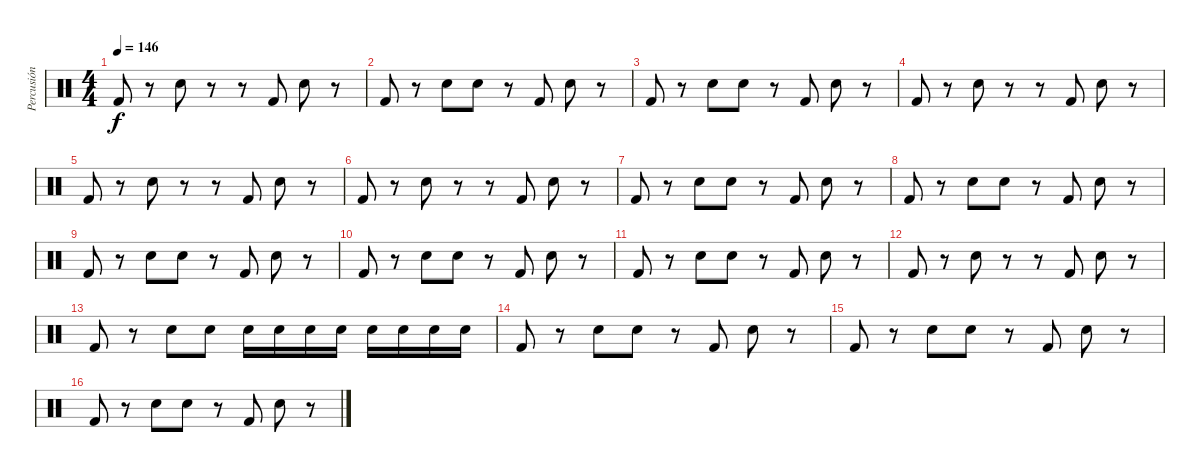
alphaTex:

\track ("Percusión" "Percusión") {instrument percussion}
\staff {score}
\articulation defaults
\ts (4 4)
\tempo 146
\clef neutral
\ks c "Kick (hit) 2".8{dy f}
r.8 "Snare (hit) 2".8 r.8 r.8 "Kick (hit) 2".8 "Snare (hit) 2".8 r.8 |
"Kick (hit) 2".8 r.8 "Snare (hit) 2".8 "Snare (hit) 2".8 r.8 "Kick (hit) 2".8 "Snare (hit) 2".8 r.8 |
"Kick (hit) 2".8 r.8 "Snare (hit) 2".8 "Snare (hit) 2".8 r.8 "Kick (hit) 2".8 "Snare (hit) 2".8 r.8 |
"Kick (hit) 2".8 r.8 "Snare (hit) 2".8 r.8 r.8 "Kick (hit) 2".8 "Snare (hit) 2".8 r.8 |
"Kick (hit) 2".8 r.8 "Snare (hit) 2".8 r.8 r.8 "Kick (hit) 2".8 "Snare (hit) 2".8 r.8 |
"Kick (hit) 2".8 r.8 "Snare (hit) 2".8 r.8 r.8 "Kick (hit) 2".8 "Snare (hit) 2".8 r.8 |
"Kick (hit) 2".8 r.8 "Snare (hit) 2".8 "Snare (hit) 2".8 r.8 "Kick (hit) 2".8 "Snare (hit) 2".8 r.8 |
"Kick (hit) 2".8 r.8 "Snare (hit) 2".8 "Snare (hit) 2".8 r.8 "Kick (hit) 2".8 "Snare (hit) 2".8 r.8 |
"Kick (hit) 2".8 r.8 "Snare (hit) 2".8 "Snare (hit) 2".8 r.8 "Kick (hit) 2".8 "Snare (hit) 2".8 r.8 |
"Kick (hit) 2".8 r.8 "Snare (hit) 2".8 "Snare (hit) 2".8 r.8 "Kick (hit) 2".8 "Snare (hit) 2".8 r.8 |
"Kick (hit) 2".8 r.8 "Snare (hit) 2".8 "Snare (hit) 2".8 r.8 "Kick (hit) 2".8 "Snare (hit) 2".8 r.8 |
"Kick (hit) 2".8 r.8 "Snare (hit) 2".8 r.8 r.8 "Kick (hit) 2".8 "Snare (hit) 2".8 r.8 |
"Kick (hit) 2".8 r.8 "Snare (hit) 2".8 "Snare (hit) 2".8 "Snare (hit) 2".16 "Snare (hit) 2".16 "Snare (hit) 2".16 "Snare (hit) 2".16 "Snare (hit) 2".16 "Snare (hit) 2".16 "Snare (hit) 2".16 "Snare (hit) 2".16 |
"Kick (hit) 2".8 r.8 "Snare (hit) 2".8 "Snare (hit) 2".8 r.8 "Kick (hit) 2".8 "Snare (hit) 2".8 r.8 |
"Kick (hit) 2".8 r.8 "Snare (hit) 2".8 "Snare (hit) 2".8 r.8 "Kick (hit) 2".8 "Snare (hit) 2".8 r.8 |
"Kick (hit) 2".8 r.8 "Snare (hit) 2".8 "Snare (hit) 2".8 r.8 "Kick (hit) 2".8 "Snare (hit) 2".8 r.8
